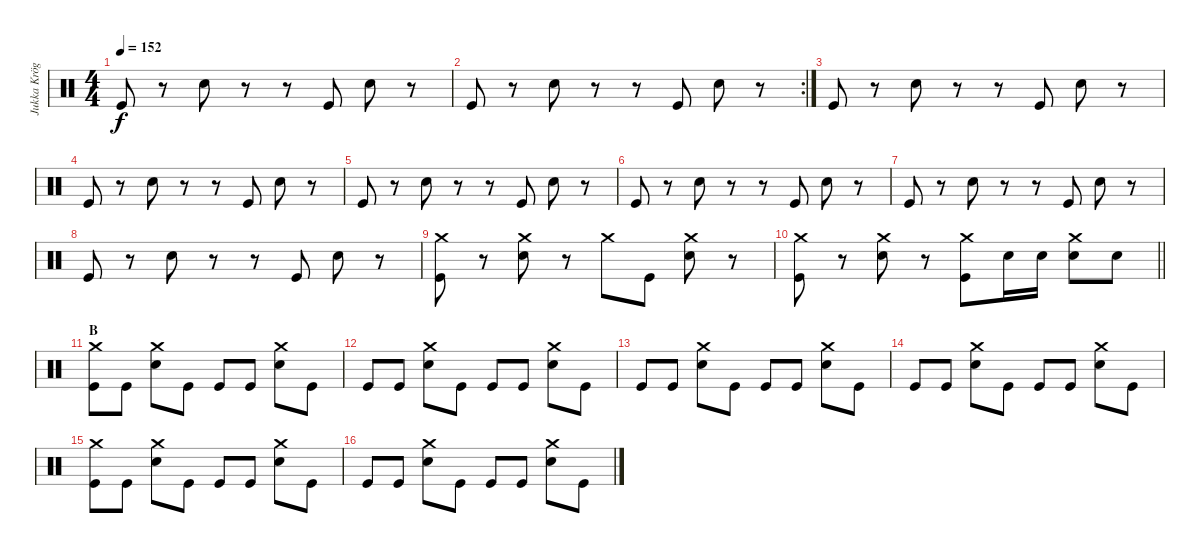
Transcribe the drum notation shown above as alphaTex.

\track ("Jukka Kröger" "Jukka Krög") {instrument percussion}
\staff {score}
\articulation defaults
\ts (4 4)
\tempo 152
\clef neutral
\ks aminor "Kick (hit)".8{dy f}
r.8 "Snare (hit) 2".8 r.8 r.8 "Kick (hit)".8 "Snare (hit) 2".8 r.8 |
\rc 2 "Kick (hit)".8
r.8 "Snare (hit) 2".8 r.8 r.8 "Kick (hit)".8 "Snare (hit) 2".8 r.8 |
"Kick (hit)".8 r.8 "Snare (hit) 2".8 r.8 r.8 "Kick (hit)".8 "Snare (hit) 2".8 r.8 |
"Kick (hit)".8 r.8 "Snare (hit) 2".8 r.8 r.8 "Kick (hit)".8 "Snare (hit) 2".8 r.8 |
"Kick (hit)".8 r.8 "Snare (hit) 2".8 r.8 r.8 "Kick (hit)".8 "Snare (hit) 2".8 r.8 |
"Kick (hit)".8 r.8 "Snare (hit) 2".8 r.8 r.8 "Kick (hit)".8 "Snare (hit) 2".8 r.8 |
"Kick (hit)".8 r.8 "Snare (hit) 2".8 r.8 r.8 "Kick (hit)".8 "Snare (hit) 2".8 r.8 |
"Kick (hit)".8 r.8 "Snare (hit) 2".8 r.8 r.8 "Kick (hit)".8 "Snare (hit) 2".8 r.8 |
("Crash medium (hit)" "Kick (hit)").8 r.8 ("Crash medium (hit)" "Snare (hit) 2").8 r.8 "Crash medium (hit)".8 "Kick (hit)".8 ("Crash medium (hit)" "Snare (hit) 2").8 r.8 |
\barLineRight lightlight
("Crash medium (hit)" "Kick (hit)").8 r.8 ("Crash medium (hit)" "Snare (hit) 2").8 r.8 ("Crash medium (hit)" "Kick (hit)").8 "Snare (hit) 2".16 "Snare (hit) 2".16 ("Crash medium (hit)" "Snare (hit) 2").8 "Snare (hit) 2".8 |
\section ("" "B")
("Crash medium (hit)" "Kick (hit)").8 "Kick (hit)".8 ("Crash medium (hit)" "Snare (hit) 2").8 "Kick (hit)".8 "Kick (hit)".8 "Kick (hit)".8 ("Crash medium (hit)" "Snare (hit) 2").8 "Kick (hit)".8 |
"Kick (hit)".8 "Kick (hit)".8 ("Crash medium (hit)" "Snare (hit) 2").8 "Kick (hit)".8 "Kick (hit)".8 "Kick (hit)".8 ("Crash medium (hit)" "Snare (hit) 2").8 "Kick (hit)".8 |
"Kick (hit)".8 "Kick (hit)".8 ("Crash medium (hit)" "Snare (hit) 2").8 "Kick (hit)".8 "Kick (hit)".8 "Kick (hit)".8 ("Crash medium (hit)" "Snare (hit) 2").8 "Kick (hit)".8 |
"Kick (hit)".8 "Kick (hit)".8 ("Crash medium (hit)" "Snare (hit) 2").8 "Kick (hit)".8 "Kick (hit)".8 "Kick (hit)".8 ("Crash medium (hit)" "Snare (hit) 2").8 "Kick (hit)".8 |
("Crash medium (hit)" "Kick (hit)").8 "Kick (hit)".8 ("Crash medium (hit)" "Snare (hit) 2").8 "Kick (hit)".8 "Kick (hit)".8 "Kick (hit)".8 ("Crash medium (hit)" "Snare (hit) 2").8 "Kick (hit)".8 |
"Kick (hit)".8 "Kick (hit)".8 ("Crash medium (hit)" "Snare (hit) 2").8 "Kick (hit)".8 "Kick (hit)".8 "Kick (hit)".8 ("Crash medium (hit)" "Snare (hit) 2").8 "Kick (hit)".8
